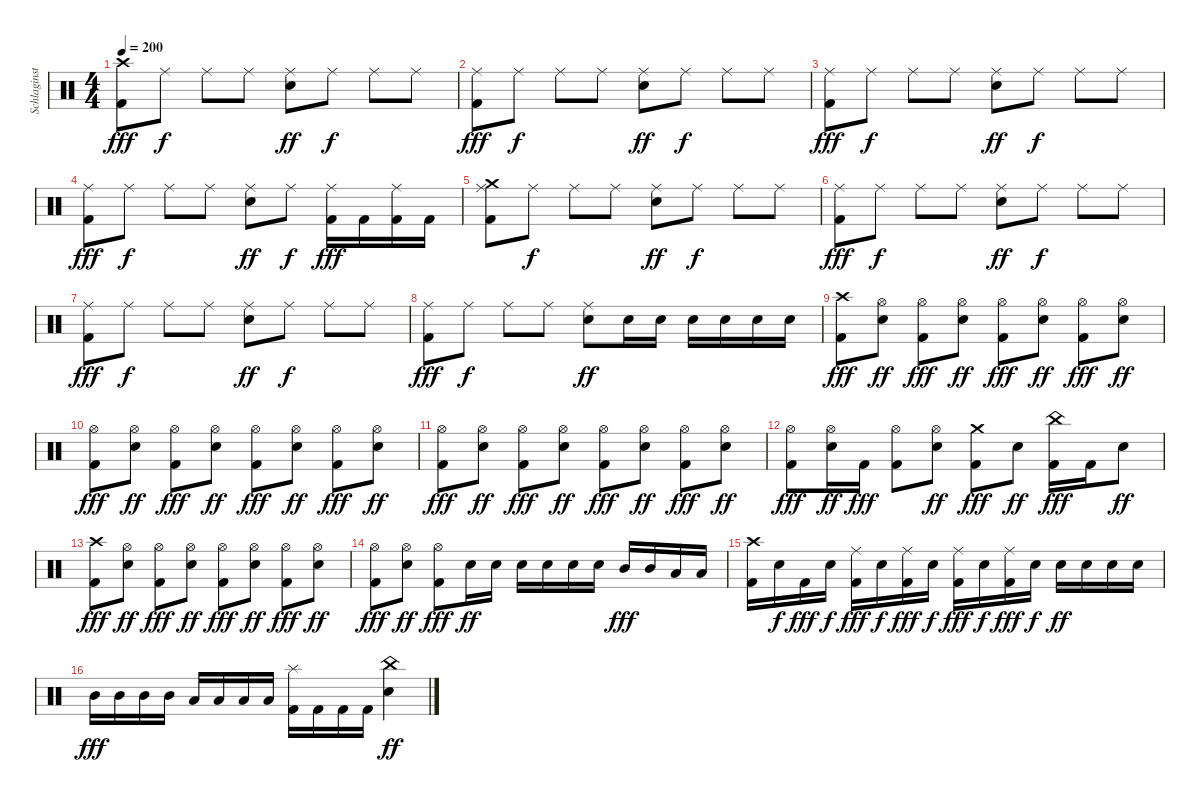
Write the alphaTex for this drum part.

\track ("Schlaginstrumente - Auswahl" "Schlaginst") {instrument percussion}
\staff {score}
\articulation defaults
\ts (4 4)
\tempo 200
\clef neutral
\ks c
("Crash high (hit)" "Kick (hit) 2").8{dy fff} "Ride (middle)".8{dy f} "Ride (middle)".8 "Ride (middle)".8 ("Ride (middle)" "Snare (hit) 2").8{dy ff} "Ride (middle)".8{dy f} "Ride (middle)".8 "Ride (middle)".8 |
("Ride (middle)" "Kick (hit) 2").8{dy fff} "Ride (middle)".8{dy f} "Ride (middle)".8 "Ride (middle)".8 ("Ride (middle)" "Snare (hit) 2").8{dy ff} "Ride (middle)".8{dy f} "Ride (middle)".8 "Ride (middle)".8 |
("Ride (middle)" "Kick (hit) 2").8{dy fff} "Ride (middle)".8{dy f} "Ride (middle)".8 "Ride (middle)".8 ("Ride (middle)" "Snare (hit) 2").8{dy ff} "Ride (middle)".8{dy f} "Ride (middle)".8 "Ride (middle)".8 |
("Ride (middle)" "Kick (hit) 2").8{dy fff} "Ride (middle)".8{dy f} "Ride (middle)".8 "Ride (middle)".8 ("Ride (middle)" "Snare (hit) 2").8{dy ff} "Ride (middle)".8{dy f} ("Ride (middle)" "Kick (hit) 2").16{dy fff} "Kick (hit) 2".16 ("Ride (middle)" "Kick (hit) 2").16 "Kick (hit) 2".16 |
("Crash medium (hit)" "Ride (middle)" "Kick (hit) 2").8 "Ride (middle)".8{dy f} "Ride (middle)".8 "Ride (middle)".8 ("Ride (middle)" "Snare (hit) 2").8{dy ff} "Ride (middle)".8{dy f} "Ride (middle)".8 "Ride (middle)".8 |
("Ride (middle)" "Kick (hit) 2").8{dy fff} "Ride (middle)".8{dy f} "Ride (middle)".8 "Ride (middle)".8 ("Ride (middle)" "Snare (hit) 2").8{dy ff} "Ride (middle)".8{dy f} "Ride (middle)".8 "Ride (middle)".8 |
("Ride (middle)" "Kick (hit) 2").8{dy fff} "Ride (middle)".8{dy f} "Ride (middle)".8 "Ride (middle)".8 ("Ride (middle)" "Snare (hit) 2").8{dy ff} "Ride (middle)".8{dy f} "Ride (middle)".8 "Ride (middle)".8 |
("Ride (middle)" "Kick (hit) 2").8{dy fff} "Ride (middle)".8{dy f} "Ride (middle)".8 "Ride (middle)".8 ("Ride (middle)" "Snare (hit) 2").8{dy ff} "Snare (hit) 2".16 "Snare (hit) 2".16 "Snare (hit) 2".16 "Snare (hit) 2".16 "Snare (hit) 2".16 "Snare (hit) 2".16 |
("Crash high (hit)" "Kick (hit) 2").8{dy fff} ("Hi-Hat (open)" "Snare (hit) 2").8{dy ff} ("Hi-Hat (open)" "Kick (hit) 2").8{dy fff} ("Hi-Hat (open)" "Snare (hit) 2").8{dy ff} ("Hi-Hat (open)" "Kick (hit) 2").8{dy fff} ("Hi-Hat (open)" "Snare (hit) 2").8{dy ff} ("Hi-Hat (open)" "Kick (hit) 2").8{dy fff} ("Hi-Hat (open)" "Snare (hit) 2").8{dy ff} |
("Hi-Hat (open)" "Kick (hit) 2").8{dy fff} ("Hi-Hat (open)" "Snare (hit) 2").8{dy ff} ("Hi-Hat (open)" "Kick (hit) 2").8{dy fff} ("Hi-Hat (open)" "Snare (hit) 2").8{dy ff} ("Hi-Hat (open)" "Kick (hit) 2").8{dy fff} ("Hi-Hat (open)" "Snare (hit) 2").8{dy ff} ("Hi-Hat (open)" "Kick (hit) 2").8{dy fff} ("Hi-Hat (open)" "Snare (hit) 2").8{dy ff} |
("Hi-Hat (open)" "Kick (hit) 2").8{dy fff} ("Hi-Hat (open)" "Snare (hit) 2").8{dy ff} ("Hi-Hat (open)" "Kick (hit) 2").8{dy fff} ("Hi-Hat (open)" "Snare (hit) 2").8{dy ff} ("Hi-Hat (open)" "Kick (hit) 2").8{dy fff} ("Hi-Hat (open)" "Snare (hit) 2").8{dy ff} ("Hi-Hat (open)" "Kick (hit) 2").8{dy fff} ("Hi-Hat (open)" "Snare (hit) 2").8{dy ff} |
("Hi-Hat (open)" "Kick (hit) 2").8{dy fff} ("Hi-Hat (open)" "Snare (hit) 2").16{dy ff} "Kick (hit) 2".16{dy fff} ("Hi-Hat (open)" "Kick (hit) 2").8 ("Hi-Hat (open)" "Snare (hit) 2").8{dy ff} ("Crash medium (hit)" "Kick (hit) 2").8{dy fff} "Snare (hit) 2".8{dy ff} ("China (hit)" "Kick (hit) 2").16{dy fff} "Kick (hit) 2".16 "Snare (hit) 2".8{dy ff} |
("Crash high (hit)" "Kick (hit) 2").8{dy fff} ("Hi-Hat (open)" "Snare (hit) 2").8{dy ff} ("Hi-Hat (open)" "Kick (hit) 2").8{dy fff} ("Hi-Hat (open)" "Snare (hit) 2").8{dy ff} ("Hi-Hat (open)" "Kick (hit) 2").8{dy fff} ("Hi-Hat (open)" "Snare (hit) 2").8{dy ff} ("Hi-Hat (open)" "Kick (hit) 2").8{dy fff} ("Hi-Hat (open)" "Snare (hit) 2").8{dy ff} |
("Hi-Hat (open)" "Kick (hit) 2").8{dy fff} ("Hi-Hat (open)" "Snare (hit) 2").8{dy ff} ("Hi-Hat (open)" "Kick (hit) 2").8{dy fff} "Snare (hit) 2".16{dy ff} "Snare (hit) 2".16 "Snare (hit) 2".16 "Snare (hit) 2".16 "Snare (hit) 2".16 "Snare (hit) 2".16 "Mid Tom (hit)".16{dy fff} "Mid Tom (hit)".16 "Low Tom (hit)".16 "Low Tom (hit)".16 |
("Crash high (hit)" "Kick (hit) 2").16 "Snare (hit) 2".16{dy f} "Kick (hit) 2".16{dy fff} "Snare (hit) 2".16{dy f} ("Ride (middle)" "Kick (hit) 2").16{dy fff} "Snare (hit) 2".16{dy f} ("Ride (middle)" "Kick (hit) 2").16{dy fff} "Snare (hit) 2".16{dy f} ("Ride (middle)" "Kick (hit) 2").16{dy fff} "Snare (hit) 2".16{dy f} ("Ride (middle)" "Kick (hit) 2").16{dy fff} "Snare (hit) 2".16{dy f} "Snare (hit) 2".16{dy ff} "Snare (hit) 2".16 "Snare (hit) 2".16 "Snare (hit) 2".16 |
"Mid Tom (hit)".16{dy fff} "Mid Tom (hit)".16 "Mid Tom (hit)".16 "Mid Tom (hit)".16 "Low Tom (hit)".16 "Low Tom (hit)".16 "Low Tom (hit)".16 "Low Tom (hit)".16 ("Splash (hit)" "Kick (hit) 2").16 "Kick (hit) 2".16 "Kick (hit) 2".16 "Kick (hit) 2".16 ("China (hit)" "Snare (hit) 2").4{dy ff}
